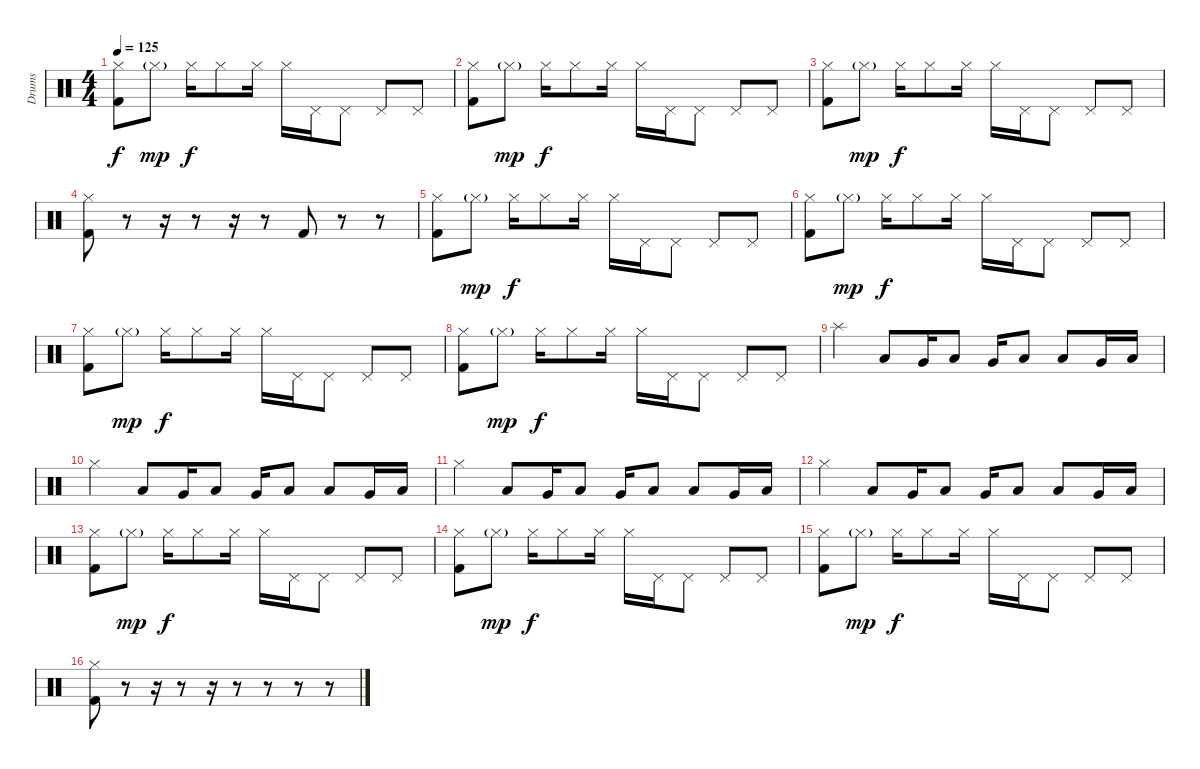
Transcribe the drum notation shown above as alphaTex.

\track ("Drums" "Drums") {instrument percussion}
\staff {score}
\articulation defaults
\ts (4 4)
\tempo 125
\clef neutral
\ks c
("Kick (hit) 2" "Hi-Hat (closed)").8{dy f} "Hi-Hat (closed)"{g}.8{dy mp} "Hi-Hat (closed)".16{dy f} "Hi-Hat (closed)".8 "Hi-Hat (closed)".16 "Hi-Hat (closed)".16 "Pedal Hi-Hat (hit)".16 "Pedal Hi-Hat (hit)".8 "Pedal Hi-Hat (hit)".8 "Pedal Hi-Hat (hit)".8 |
("Kick (hit) 2" "Hi-Hat (closed)").8 "Hi-Hat (closed)"{g}.8{dy mp} "Hi-Hat (closed)".16{dy f} "Hi-Hat (closed)".8 "Hi-Hat (closed)".16 "Hi-Hat (closed)".16 "Pedal Hi-Hat (hit)".16 "Pedal Hi-Hat (hit)".8 "Pedal Hi-Hat (hit)".8 "Pedal Hi-Hat (hit)".8 |
("Kick (hit) 2" "Hi-Hat (closed)").8 "Hi-Hat (closed)"{g}.8{dy mp} "Hi-Hat (closed)".16{dy f} "Hi-Hat (closed)".8 "Hi-Hat (closed)".16 "Hi-Hat (closed)".16 "Pedal Hi-Hat (hit)".16 "Pedal Hi-Hat (hit)".8 "Pedal Hi-Hat (hit)".8 "Pedal Hi-Hat (hit)".8 |
("Kick (hit) 2" "Hi-Hat (closed)").8 r.8 r.16 r.8 r.16 r.8 "Kick (hit) 2".8 r.8 r.8 |
("Kick (hit) 2" "Hi-Hat (closed)").8 "Hi-Hat (closed)"{g}.8{dy mp} "Hi-Hat (closed)".16{dy f} "Hi-Hat (closed)".8 "Hi-Hat (closed)".16 "Hi-Hat (closed)".16 "Pedal Hi-Hat (hit)".16 "Pedal Hi-Hat (hit)".8 "Pedal Hi-Hat (hit)".8 "Pedal Hi-Hat (hit)".8 |
("Kick (hit) 2" "Hi-Hat (closed)").8 "Hi-Hat (closed)"{g}.8{dy mp} "Hi-Hat (closed)".16{dy f} "Hi-Hat (closed)".8 "Hi-Hat (closed)".16 "Hi-Hat (closed)".16 "Pedal Hi-Hat (hit)".16 "Pedal Hi-Hat (hit)".8 "Pedal Hi-Hat (hit)".8 "Pedal Hi-Hat (hit)".8 |
("Kick (hit) 2" "Hi-Hat (closed)").8 "Hi-Hat (closed)"{g}.8{dy mp} "Hi-Hat (closed)".16{dy f} "Hi-Hat (closed)".8 "Hi-Hat (closed)".16 "Hi-Hat (closed)".16 "Pedal Hi-Hat (hit)".16 "Pedal Hi-Hat (hit)".8 "Pedal Hi-Hat (hit)".8 "Pedal Hi-Hat (hit)".8 |
("Kick (hit) 2" "Hi-Hat (closed)").8 "Hi-Hat (closed)"{g}.8{dy mp} "Hi-Hat (closed)".16{dy f} "Hi-Hat (closed)".8 "Hi-Hat (closed)".16 "Hi-Hat (closed)".16 "Pedal Hi-Hat (hit)".16 "Pedal Hi-Hat (hit)".8 "Pedal Hi-Hat (hit)".8 "Pedal Hi-Hat (hit)".8 |
"Splash (hit)".4 "Low Floor Tom (hit)".8 "Very Low Tom (hit)".16 "Low Floor Tom (hit)".8 "Very Low Tom (hit)".16 "Low Floor Tom (hit)".8 "Low Floor Tom (hit)".8 "Very Low Tom (hit)".16 "Low Floor Tom (hit)".16 |
"Hi-Hat (closed)".4 "Low Floor Tom (hit)".8 "Very Low Tom (hit)".16 "Low Floor Tom (hit)".8 "Very Low Tom (hit)".16 "Low Floor Tom (hit)".8 "Low Floor Tom (hit)".8 "Very Low Tom (hit)".16 "Low Floor Tom (hit)".16 |
"Hi-Hat (closed)".4 "Low Floor Tom (hit)".8 "Very Low Tom (hit)".16 "Low Floor Tom (hit)".8 "Very Low Tom (hit)".16 "Low Floor Tom (hit)".8 "Low Floor Tom (hit)".8 "Very Low Tom (hit)".16 "Low Floor Tom (hit)".16 |
"Hi-Hat (closed)".4 "Low Floor Tom (hit)".8 "Very Low Tom (hit)".16 "Low Floor Tom (hit)".8 "Very Low Tom (hit)".16 "Low Floor Tom (hit)".8 "Low Floor Tom (hit)".8 "Very Low Tom (hit)".16 "Low Floor Tom (hit)".16 |
("Kick (hit) 2" "Hi-Hat (closed)").8 "Hi-Hat (closed)"{g}.8{dy mp} "Hi-Hat (closed)".16{dy f} "Hi-Hat (closed)".8 "Hi-Hat (closed)".16 "Hi-Hat (closed)".16 "Pedal Hi-Hat (hit)".16 "Pedal Hi-Hat (hit)".8 "Pedal Hi-Hat (hit)".8 "Pedal Hi-Hat (hit)".8 |
("Kick (hit) 2" "Hi-Hat (closed)").8 "Hi-Hat (closed)"{g}.8{dy mp} "Hi-Hat (closed)".16{dy f} "Hi-Hat (closed)".8 "Hi-Hat (closed)".16 "Hi-Hat (closed)".16 "Pedal Hi-Hat (hit)".16 "Pedal Hi-Hat (hit)".8 "Pedal Hi-Hat (hit)".8 "Pedal Hi-Hat (hit)".8 |
("Kick (hit) 2" "Hi-Hat (closed)").8 "Hi-Hat (closed)"{g}.8{dy mp} "Hi-Hat (closed)".16{dy f} "Hi-Hat (closed)".8 "Hi-Hat (closed)".16 "Hi-Hat (closed)".16 "Pedal Hi-Hat (hit)".16 "Pedal Hi-Hat (hit)".8 "Pedal Hi-Hat (hit)".8 "Pedal Hi-Hat (hit)".8 |
("Kick (hit) 2" "Hi-Hat (closed)").8 r.8 r.16 r.8 r.16 r.8 r.8 r.8 r.8
